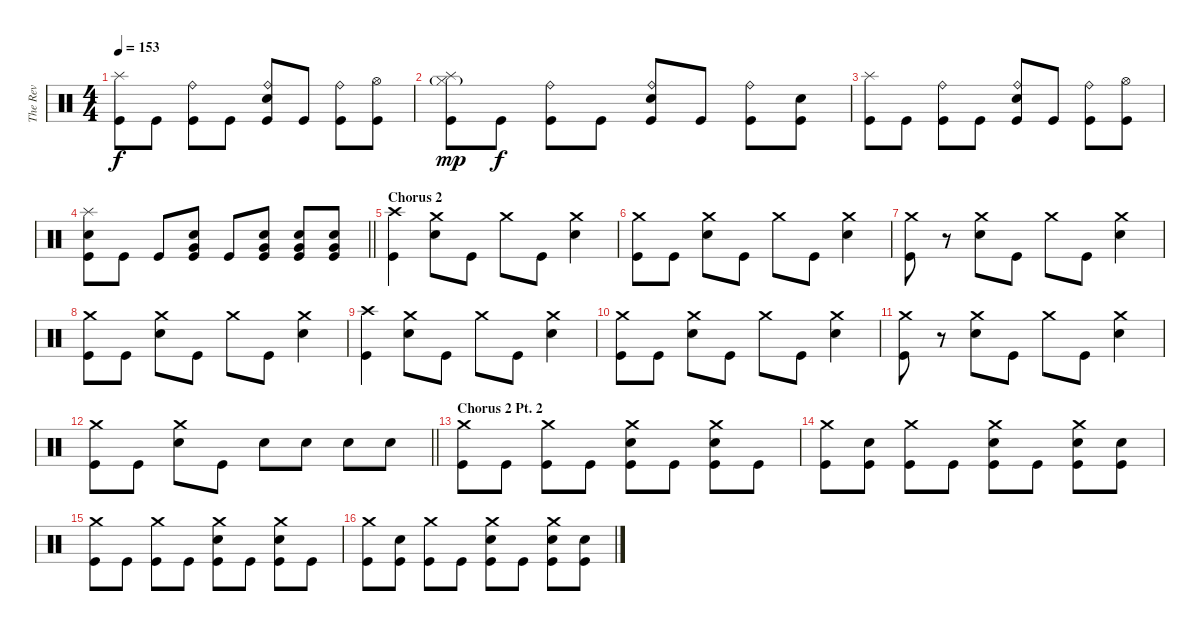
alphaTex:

\track ("The Rev" "The Rev") {instrument percussion}
\staff {score}
\articulation defaults
\ts (4 4)
\tempo 153
\clef neutral
\ks c
("Splash (hit)" "Kick (hit)").8{dy f} "Kick (hit)".8 ("Ride (bell)" "Kick (hit)").8 "Kick (hit)".8 ("Ride (bell)" "Electric Snare (hit)" "Kick (hit)").8 "Kick (hit)".8 ("Ride (bell)" "Kick (hit)").8 ("Hi-Hat (open)" "Kick (hit)").8 |
("Splash (hit)" "Hi-Hat (closed)"{g} "Kick (hit)").8{dy mp} "Kick (hit)".8{dy f} ("Ride (bell)" "Kick (hit)").8 "Kick (hit)".8 ("Ride (bell)" "Electric Snare (hit)" "Kick (hit)").8 "Kick (hit)".8 ("Ride (bell)" "Kick (hit)").8 ("Electric Snare (hit)" "Kick (hit)").8 |
("Splash (hit)" "Kick (hit)").8 "Kick (hit)".8 ("Ride (bell)" "Kick (hit)").8 "Kick (hit)".8 ("Ride (bell)" "Electric Snare (hit)" "Kick (hit)").8 "Kick (hit)".8 ("Ride (bell)" "Kick (hit)").8 ("Hi-Hat (open)" "Kick (hit)").8 |
\barLineRight lightlight
("Splash (hit)" "Electric Snare (hit)" "Kick (hit)").8 "Kick (hit)".8 "Kick (hit)".8 ("Very Low Tom (hit)" "Electric Snare (hit)" "Kick (hit)").8 "Kick (hit)".8 ("Very Low Tom (hit)" "Electric Snare (hit)" "Kick (hit)").8 ("Very Low Tom (hit)" "Electric Snare (hit)" "Kick (hit)").8 ("Very Low Tom (hit)" "Electric Snare (hit)" "Kick (hit)").8 |
\section ("" "Chorus 2")
("Crash high (hit)" "Kick (hit)").4 ("Crash medium (hit)" "Electric Snare (hit)").8 "Kick (hit)".8 "Crash medium (hit)".8 "Kick (hit)".8 ("Crash medium (hit)" "Electric Snare (hit)").4 |
("Crash medium (hit)" "Kick (hit)").8 "Kick (hit)".8 ("Crash medium (hit)" "Electric Snare (hit)").8 "Kick (hit)".8 "Crash medium (hit)".8 "Kick (hit)".8 ("Crash medium (hit)" "Electric Snare (hit)").4 |
("Crash medium (hit)" "Kick (hit)").8 r.8 ("Crash medium (hit)" "Electric Snare (hit)").8 "Kick (hit)".8 "Crash medium (hit)".8 "Kick (hit)".8 ("Crash medium (hit)" "Electric Snare (hit)").4 |
("Crash medium (hit)" "Kick (hit)").8 "Kick (hit)".8 ("Crash medium (hit)" "Electric Snare (hit)").8 "Kick (hit)".8 "Crash medium (hit)".8 "Kick (hit)".8 ("Crash medium (hit)" "Electric Snare (hit)").4 |
("Crash high (hit)" "Kick (hit)").4 ("Crash medium (hit)" "Electric Snare (hit)").8 "Kick (hit)".8 "Crash medium (hit)".8 "Kick (hit)".8 ("Crash medium (hit)" "Electric Snare (hit)").4 |
("Crash medium (hit)" "Kick (hit)").8 "Kick (hit)".8 ("Crash medium (hit)" "Electric Snare (hit)").8 "Kick (hit)".8 "Crash medium (hit)".8 "Kick (hit)".8 ("Crash medium (hit)" "Electric Snare (hit)").4 |
("Crash medium (hit)" "Kick (hit)").8 r.8 ("Crash medium (hit)" "Electric Snare (hit)").8 "Kick (hit)".8 "Crash medium (hit)".8 "Kick (hit)".8 ("Crash medium (hit)" "Electric Snare (hit)").4 |
\barLineRight lightlight
("Crash medium (hit)" "Kick (hit)").8 "Kick (hit)".8 ("Crash medium (hit)" "Electric Snare (hit)").8 "Kick (hit)".8 "Electric Snare (hit)".8 "Electric Snare (hit)".8 "Electric Snare (hit)".8 "Electric Snare (hit)".8 |
\section ("" "Chorus 2 Pt. 2")
("Crash medium (hit)" "Kick (hit)").8 "Kick (hit)".8 ("Crash medium (hit)" "Kick (hit)").8 "Kick (hit)".8 ("Crash medium (hit)" "Electric Snare (hit)" "Kick (hit)").8 "Kick (hit)".8 ("Crash medium (hit)" "Electric Snare (hit)" "Kick (hit)").8 "Kick (hit)".8 |
("Crash medium (hit)" "Kick (hit)").8 ("Electric Snare (hit)" "Kick (hit)").8 ("Crash medium (hit)" "Kick (hit)").8 "Kick (hit)".8 ("Crash medium (hit)" "Electric Snare (hit)" "Kick (hit)").8 "Kick (hit)".8 ("Crash medium (hit)" "Electric Snare (hit)" "Kick (hit)").8 ("Electric Snare (hit)" "Kick (hit)").8 |
("Crash medium (hit)" "Kick (hit)").8 "Kick (hit)".8 ("Crash medium (hit)" "Kick (hit)").8 "Kick (hit)".8 ("Crash medium (hit)" "Electric Snare (hit)" "Kick (hit)").8 "Kick (hit)".8 ("Crash medium (hit)" "Electric Snare (hit)" "Kick (hit)").8 "Kick (hit)".8 |
("Crash medium (hit)" "Kick (hit)").8 ("Electric Snare (hit)" "Kick (hit)").8 ("Crash medium (hit)" "Kick (hit)").8 "Kick (hit)".8 ("Crash medium (hit)" "Electric Snare (hit)" "Kick (hit)").8 "Kick (hit)".8 ("Crash medium (hit)" "Electric Snare (hit)" "Kick (hit)").8 ("Electric Snare (hit)" "Kick (hit)").8
